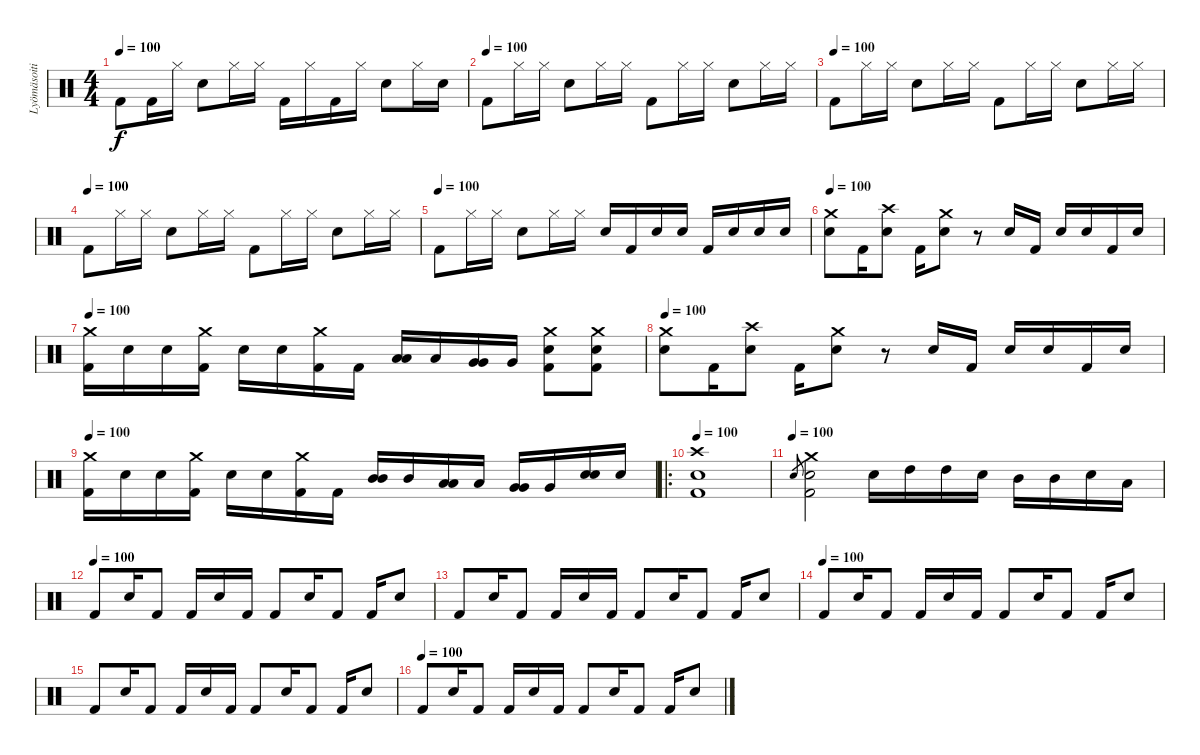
\track ("Lyömäsoitin" "Lyömäsoiti") {instrument percussion}
\staff {score}
\articulation defaults
\ts (4 4)
\tempo 100
\clef neutral
\ks c "Kick (hit) 2".8{dy f} "Kick (hit) 2".16 "Hi-Hat (closed)".16 "Electric Snare (hit)".8 "Hi-Hat (closed)".16 "Hi-Hat (closed)".16 "Kick (hit) 2".16 "Hi-Hat (closed)".16 "Kick (hit) 2".16 "Hi-Hat (closed)".16 "Electric Snare (hit)".8 "Hi-Hat (closed)".16 "Electric Snare (hit)".16
|
\tempo (100)
"Kick (hit) 2".8 "Hi-Hat (closed)".16 "Hi-Hat (closed)".16 "Electric Snare (hit)".8 "Hi-Hat (closed)".16 "Hi-Hat (closed)".16 "Kick (hit) 2".8 "Hi-Hat (closed)".16 "Hi-Hat (closed)".16 "Electric Snare (hit)".8 "Hi-Hat (closed)".16 "Hi-Hat (closed)".16 |
\tempo (100)
"Kick (hit) 2".8 "Hi-Hat (closed)".16 "Hi-Hat (closed)".16 "Electric Snare (hit)".8 "Hi-Hat (closed)".16 "Hi-Hat (closed)".16 "Kick (hit) 2".8 "Hi-Hat (closed)".16 "Hi-Hat (closed)".16 "Electric Snare (hit)".8 "Hi-Hat (closed)".16 "Hi-Hat (closed)".16 |
\tempo (100)
"Kick (hit) 2".8 "Hi-Hat (closed)".16 "Hi-Hat (closed)".16 "Electric Snare (hit)".8 "Hi-Hat (closed)".16 "Hi-Hat (closed)".16 "Kick (hit) 2".8 "Hi-Hat (closed)".16 "Hi-Hat (closed)".16 "Electric Snare (hit)".8 "Hi-Hat (closed)".16 "Hi-Hat (closed)".16 |
\tempo (100)
"Kick (hit) 2".8 "Hi-Hat (closed)".16 "Hi-Hat (closed)".16 "Electric Snare (hit)".8 "Hi-Hat (closed)".16 "Hi-Hat (closed)".16 "Electric Snare (hit)".16 "Kick (hit) 2".16 "Electric Snare (hit)".16 "Electric Snare (hit)".16 "Kick (hit) 2".16 "Electric Snare (hit)".16 "Electric Snare (hit)".16 "Electric Snare (hit)".16 |
\tempo 100
("Electric Snare (hit)" "Crash medium (hit)").8 "Kick (hit) 2".16 ("Electric Snare (hit)" "Crash high (hit)").8 "Kick (hit) 2".16 ("Electric Snare (hit)" "Crash medium (hit)").8 r.8 "Electric Snare (hit)".16 "Kick (hit) 2".16 "Electric Snare (hit)".16 "Electric Snare (hit)".16 "Kick (hit) 2".16 "Electric Snare (hit)".16 |
\tempo 100
("Kick (hit) 2" "Crash medium (hit)").16 "Electric Snare (hit)".16 "Electric Snare (hit)".16 ("Kick (hit) 2" "Crash medium (hit)").16 "Electric Snare (hit)".16 "Electric Snare (hit)".16 ("Kick (hit) 2" "Crash medium (hit)").16 "Kick (hit) 2".16 ("Low Tom (hit)" "Low Tom (hit)").16 "Low Tom (hit)".16 ("Very Low Tom (hit)" "Very Low Tom (hit)").16 "Very Low Tom (hit)".16 ("Electric Snare (hit)" "Crash medium (hit)" "Kick (hit) 2").8 ("Electric Snare (hit)" "Crash medium (hit)" "Kick (hit) 2").8 |
\tempo 100
("Electric Snare (hit)" "Crash medium (hit)").8 "Kick (hit) 2".16 ("Electric Snare (hit)" "Crash high (hit)").8 "Kick (hit) 2".16 ("Electric Snare (hit)" "Crash medium (hit)").8 r.8 "Electric Snare (hit)".16 "Kick (hit) 2".16 "Electric Snare (hit)".16 "Electric Snare (hit)".16 "Kick (hit) 2".16 "Electric Snare (hit)".16 |
\tempo 100
("Kick (hit) 2" "Crash medium (hit)").16 "Electric Snare (hit)".16 "Electric Snare (hit)".16 ("Kick (hit) 2" "Crash medium (hit)").16 "Electric Snare (hit)".16 "Electric Snare (hit)".16 ("Kick (hit) 2" "Crash medium (hit)").16 "Kick (hit) 2".16 ("Mid Tom (hit)" "Mid Tom (hit)").16 "Mid Tom (hit)".16 ("Low Tom (hit)" "Low Tom (hit)").16 "Low Tom (hit)".16 ("Very Low Tom (hit)" "Very Low Tom (hit)").16 "Very Low Tom (hit)".16 ("Electric Snare (hit)" "Electric Snare (hit)").16 "Electric Snare (hit)".16 |
\ro
\tempo 100
("Electric Snare (hit)" "Kick (hit) 2" "Crash high (hit)").1 |
\tempo (100)
"Electric Snare (hit)".8{gr} ("Kick (hit) 2" "Electric Snare (hit)" "Crash medium (hit)").2 "Electric Snare (hit)".16 "High Tom (hit)".16 "High Tom (hit)".16 "Electric Snare (hit)".16 "Mid Tom (hit)".16 "Mid Tom (hit)".16 "Electric Snare (hit)".16 "Low Tom (hit)".16 |
\tempo (100)
"Kick (hit) 2".8 "Electric Snare (hit)".16 "Kick (hit) 2".8 "Kick (hit) 2".16 "Electric Snare (hit)".16 "Kick (hit) 2".16 "Kick (hit) 2".8 "Electric Snare (hit)".16 "Kick (hit) 2".8 "Kick (hit) 2".16 "Electric Snare (hit)".8 |
"Kick (hit) 2".8 "Electric Snare (hit)".16 "Kick (hit) 2".8 "Kick (hit) 2".16 "Electric Snare (hit)".16 "Kick (hit) 2".16 "Kick (hit) 2".8 "Electric Snare (hit)".16 "Kick (hit) 2".8 "Kick (hit) 2".16 "Electric Snare (hit)".8 |
\tempo (100)
"Kick (hit) 2".8 "Electric Snare (hit)".16 "Kick (hit) 2".8 "Kick (hit) 2".16 "Electric Snare (hit)".16 "Kick (hit) 2".16 "Kick (hit) 2".8 "Electric Snare (hit)".16 "Kick (hit) 2".8 "Kick (hit) 2".16 "Electric Snare (hit)".8 |
"Kick (hit) 2".8 "Electric Snare (hit)".16 "Kick (hit) 2".8 "Kick (hit) 2".16 "Electric Snare (hit)".16 "Kick (hit) 2".16 "Kick (hit) 2".8 "Electric Snare (hit)".16 "Kick (hit) 2".8 "Kick (hit) 2".16 "Electric Snare (hit)".8 |
\tempo (100)
"Kick (hit) 2".8 "Electric Snare (hit)".16 "Kick (hit) 2".8 "Kick (hit) 2".16 "Electric Snare (hit)".16 "Kick (hit) 2".16 "Kick (hit) 2".8 "Electric Snare (hit)".16 "Kick (hit) 2".8 "Kick (hit) 2".16 "Electric Snare (hit)".8
